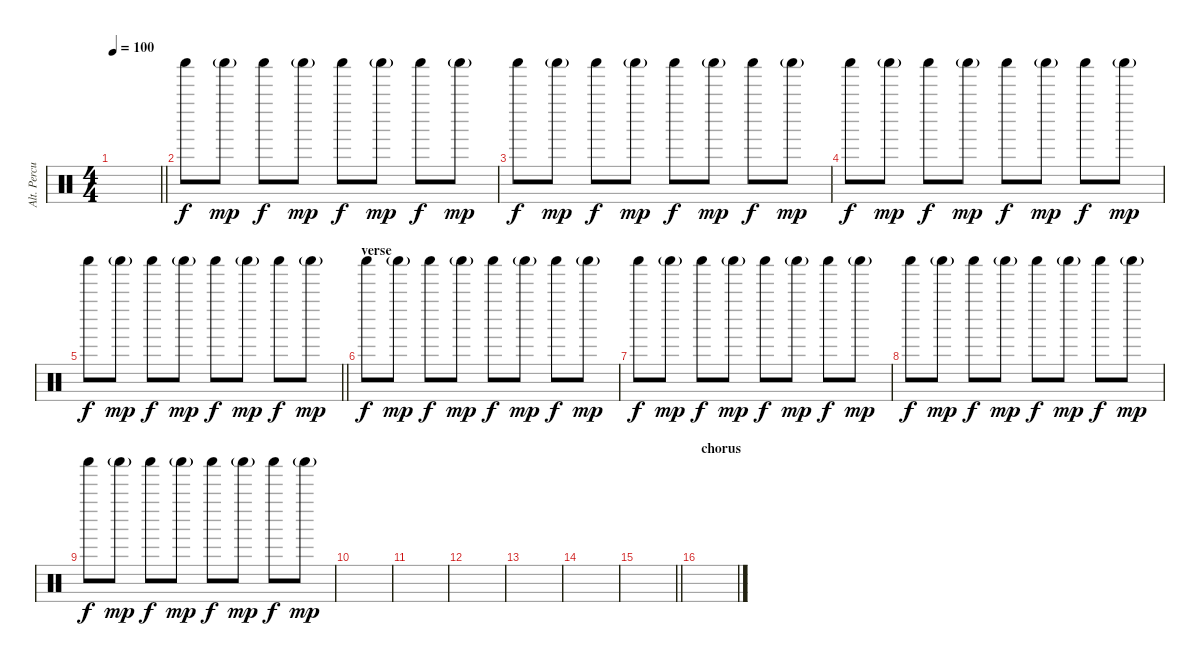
\track ("Alt. Percu" "Alt. Percu") {instrument percussion}
\staff {score}
\articulation defaults
\ts (4 4)
\tempo 100
\clef neutral
\barLineRight lightlight
\ks c
|
"Shaker (hit)".8 "Shaker (hit)"{g}.8{dy mp} "Shaker (hit)".8{dy f} "Shaker (hit)"{g}.8{dy mp} "Shaker (hit)".8{dy f} "Shaker (hit)"{g}.8{dy mp} "Shaker (hit)".8{dy f} "Shaker (hit)"{g}.8{dy mp} |
"Shaker (hit)".8{dy f} "Shaker (hit)"{g}.8{dy mp} "Shaker (hit)".8{dy f} "Shaker (hit)"{g}.8{dy mp} "Shaker (hit)".8{dy f} "Shaker (hit)"{g}.8{dy mp} "Shaker (hit)".8{dy f} "Shaker (hit)"{g}.8{dy mp} |
"Shaker (hit)".8{dy f} "Shaker (hit)"{g}.8{dy mp} "Shaker (hit)".8{dy f} "Shaker (hit)"{g}.8{dy mp} "Shaker (hit)".8{dy f} "Shaker (hit)"{g}.8{dy mp} "Shaker (hit)".8{dy f} "Shaker (hit)"{g}.8{dy mp} |
\barLineRight lightlight "Shaker (hit)".8{dy f} "Shaker (hit)"{g}.8{dy mp} "Shaker (hit)".8{dy f} "Shaker (hit)"{g}.8{dy mp} "Shaker (hit)".8{dy f} "Shaker (hit)"{g}.8{dy mp} "Shaker (hit)".8{dy f} "Shaker (hit)"{g}.8{dy mp}
|
\section ("" "verse")
"Shaker (hit)".8{dy f} "Shaker (hit)"{g}.8{dy mp} "Shaker (hit)".8{dy f} "Shaker (hit)"{g}.8{dy mp} "Shaker (hit)".8{dy f} "Shaker (hit)"{g}.8{dy mp} "Shaker (hit)".8{dy f} "Shaker (hit)"{g}.8{dy mp} |
"Shaker (hit)".8{dy f} "Shaker (hit)"{g}.8{dy mp} "Shaker (hit)".8{dy f} "Shaker (hit)"{g}.8{dy mp} "Shaker (hit)".8{dy f} "Shaker (hit)"{g}.8{dy mp} "Shaker (hit)".8{dy f} "Shaker (hit)"{g}.8{dy mp} |
"Shaker (hit)".8{dy f} "Shaker (hit)"{g}.8{dy mp} "Shaker (hit)".8{dy f} "Shaker (hit)"{g}.8{dy mp} "Shaker (hit)".8{dy f} "Shaker (hit)"{g}.8{dy mp} "Shaker (hit)".8{dy f} "Shaker (hit)"{g}.8{dy mp} |
"Shaker (hit)".8{dy f} "Shaker (hit)"{g}.8{dy mp} "Shaker (hit)".8{dy f} "Shaker (hit)"{g}.8{dy mp} "Shaker (hit)".8{dy f} "Shaker (hit)"{g}.8{dy mp} "Shaker (hit)".8{dy f} "Shaker (hit)"{g}.8{dy mp} |
|
|
|
|
|
\barLineRight lightlight
|
\section ("" "chorus")
